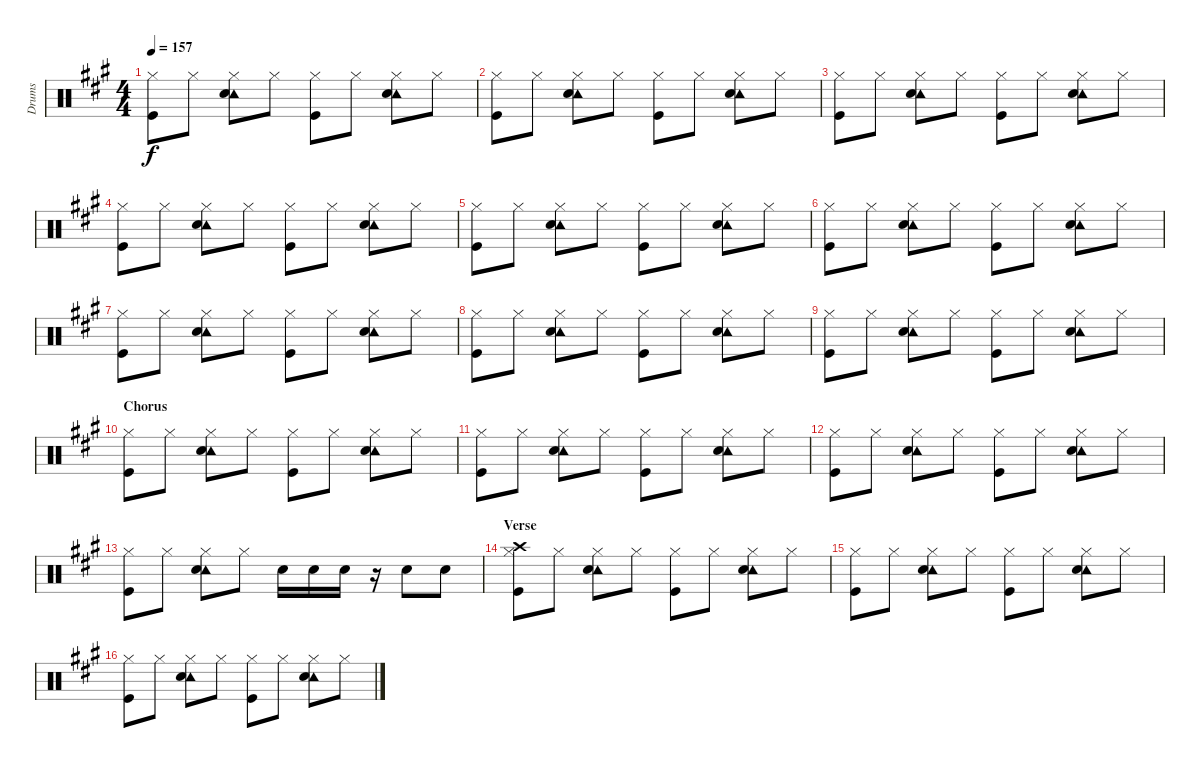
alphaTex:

\track ("Drums" "Drums") {instrument percussion}
\staff {score}
\articulation defaults
\ts (4 4)
\tempo 157
\clef neutral
\ks a
("Hi-Hat (closed)" "Kick (hit)").8{dy f} "Hi-Hat (closed)".8 ("Hi-Hat (closed)" "Tambourine (hit)" "Electric Snare (hit)").8 "Hi-Hat (closed)".8 ("Hi-Hat (closed)" "Kick (hit)").8 "Hi-Hat (closed)".8 ("Hi-Hat (closed)" "Tambourine (hit)" "Electric Snare (hit)").8 "Hi-Hat (closed)".8 |
("Hi-Hat (closed)" "Kick (hit)").8 "Hi-Hat (closed)".8 ("Hi-Hat (closed)" "Tambourine (hit)" "Electric Snare (hit)").8 "Hi-Hat (closed)".8 ("Hi-Hat (closed)" "Kick (hit)").8 "Hi-Hat (closed)".8 ("Hi-Hat (closed)" "Tambourine (hit)" "Electric Snare (hit)").8 "Hi-Hat (closed)".8 |
("Hi-Hat (closed)" "Kick (hit)").8 "Hi-Hat (closed)".8 ("Hi-Hat (closed)" "Tambourine (hit)" "Electric Snare (hit)").8 "Hi-Hat (closed)".8 ("Hi-Hat (closed)" "Kick (hit)").8 "Hi-Hat (closed)".8 ("Hi-Hat (closed)" "Tambourine (hit)" "Electric Snare (hit)").8 "Hi-Hat (closed)".8 |
("Hi-Hat (closed)" "Kick (hit)").8 "Hi-Hat (closed)".8 ("Hi-Hat (closed)" "Tambourine (hit)" "Electric Snare (hit)").8 "Hi-Hat (closed)".8 ("Hi-Hat (closed)" "Kick (hit)").8 "Hi-Hat (closed)".8 ("Hi-Hat (closed)" "Tambourine (hit)" "Electric Snare (hit)").8 "Hi-Hat (closed)".8 |
("Hi-Hat (closed)" "Kick (hit)").8 "Hi-Hat (closed)".8 ("Hi-Hat (closed)" "Tambourine (hit)" "Electric Snare (hit)").8 "Hi-Hat (closed)".8 ("Hi-Hat (closed)" "Kick (hit)").8 "Hi-Hat (closed)".8 ("Hi-Hat (closed)" "Tambourine (hit)" "Electric Snare (hit)").8 "Hi-Hat (closed)".8 |
("Hi-Hat (closed)" "Kick (hit)").8 "Hi-Hat (closed)".8 ("Hi-Hat (closed)" "Tambourine (hit)" "Electric Snare (hit)").8 "Hi-Hat (closed)".8 ("Hi-Hat (closed)" "Kick (hit)").8 "Hi-Hat (closed)".8 ("Hi-Hat (closed)" "Tambourine (hit)" "Electric Snare (hit)").8 "Hi-Hat (closed)".8 |
("Hi-Hat (closed)" "Kick (hit)").8 "Hi-Hat (closed)".8 ("Hi-Hat (closed)" "Tambourine (hit)" "Electric Snare (hit)").8 "Hi-Hat (closed)".8 ("Hi-Hat (closed)" "Kick (hit)").8 "Hi-Hat (closed)".8 ("Hi-Hat (closed)" "Tambourine (hit)" "Electric Snare (hit)").8 "Hi-Hat (closed)".8 |
("Hi-Hat (closed)" "Kick (hit)").8 "Hi-Hat (closed)".8 ("Hi-Hat (closed)" "Tambourine (hit)" "Electric Snare (hit)").8 "Hi-Hat (closed)".8 ("Hi-Hat (closed)" "Kick (hit)").8 "Hi-Hat (closed)".8 ("Hi-Hat (closed)" "Tambourine (hit)" "Electric Snare (hit)").8 "Hi-Hat (closed)".8 |
("Hi-Hat (closed)" "Kick (hit)").8 "Hi-Hat (closed)".8 ("Hi-Hat (closed)" "Tambourine (hit)" "Electric Snare (hit)").8 "Hi-Hat (closed)".8 ("Hi-Hat (closed)" "Kick (hit)").8 "Hi-Hat (closed)".8 ("Hi-Hat (closed)" "Tambourine (hit)" "Electric Snare (hit)").8 "Hi-Hat (closed)".8 |
\section ("" "Chorus")
("Hi-Hat (closed)" "Kick (hit)").8 "Hi-Hat (closed)".8 ("Hi-Hat (closed)" "Tambourine (hit)" "Electric Snare (hit)").8 "Hi-Hat (closed)".8 ("Hi-Hat (closed)" "Kick (hit)").8 "Hi-Hat (closed)".8 ("Hi-Hat (closed)" "Tambourine (hit)" "Electric Snare (hit)").8 "Hi-Hat (closed)".8 |
("Hi-Hat (closed)" "Kick (hit)").8 "Hi-Hat (closed)".8 ("Hi-Hat (closed)" "Tambourine (hit)" "Electric Snare (hit)").8 "Hi-Hat (closed)".8 ("Hi-Hat (closed)" "Kick (hit)").8 "Hi-Hat (closed)".8 ("Hi-Hat (closed)" "Tambourine (hit)" "Electric Snare (hit)").8 "Hi-Hat (closed)".8 |
("Hi-Hat (closed)" "Kick (hit)").8 "Hi-Hat (closed)".8 ("Hi-Hat (closed)" "Tambourine (hit)" "Electric Snare (hit)").8 "Hi-Hat (closed)".8 ("Hi-Hat (closed)" "Kick (hit)").8 "Hi-Hat (closed)".8 ("Hi-Hat (closed)" "Tambourine (hit)" "Electric Snare (hit)").8 "Hi-Hat (closed)".8 |
("Hi-Hat (closed)" "Kick (hit)").8 "Hi-Hat (closed)".8 ("Hi-Hat (closed)" "Tambourine (hit)" "Electric Snare (hit)").8 "Hi-Hat (closed)".8 "Electric Snare (hit)".16 "Electric Snare (hit)".16 "Electric Snare (hit)".16 r.16 "Electric Snare (hit)".8 "Electric Snare (hit)".8 |
\section ("" "Verse")
("Hi-Hat (closed)" "Crash high (hit)" "Kick (hit)").8 "Hi-Hat (closed)".8 ("Hi-Hat (closed)" "Tambourine (hit)" "Electric Snare (hit)").8 "Hi-Hat (closed)".8 ("Hi-Hat (closed)" "Kick (hit)").8 "Hi-Hat (closed)".8 ("Hi-Hat (closed)" "Tambourine (hit)" "Electric Snare (hit)").8 "Hi-Hat (closed)".8 |
("Hi-Hat (closed)" "Kick (hit)").8 "Hi-Hat (closed)".8 ("Hi-Hat (closed)" "Tambourine (hit)" "Electric Snare (hit)").8 "Hi-Hat (closed)".8 ("Hi-Hat (closed)" "Kick (hit)").8 "Hi-Hat (closed)".8 ("Hi-Hat (closed)" "Tambourine (hit)" "Electric Snare (hit)").8 "Hi-Hat (closed)".8 |
("Hi-Hat (closed)" "Kick (hit)").8 "Hi-Hat (closed)".8 ("Hi-Hat (closed)" "Tambourine (hit)" "Electric Snare (hit)").8 "Hi-Hat (closed)".8 ("Hi-Hat (closed)" "Kick (hit)").8 "Hi-Hat (closed)".8 ("Hi-Hat (closed)" "Tambourine (hit)" "Electric Snare (hit)").8 "Hi-Hat (closed)".8
